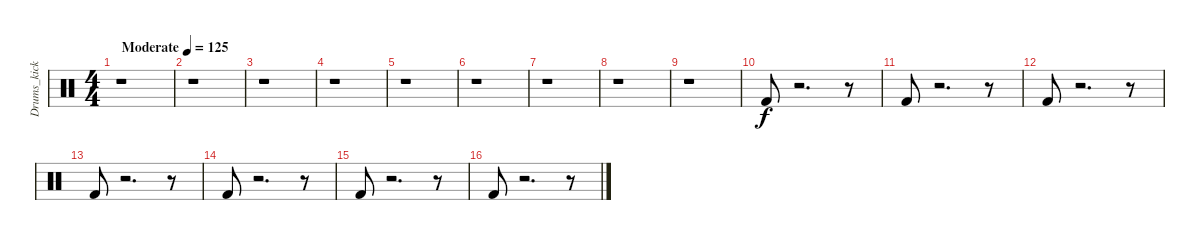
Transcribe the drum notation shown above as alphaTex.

\track ("Drums_kick" "Drums_kick") {instrument percussion}
\staff {score}
\articulation defaults
\ts (4 4)
\tempo (125 "Moderate")
\clef neutral
\ks c
r.1{dy f} |
r.1 |
r.1 |
r.1 |
r.1 |
r.1 |
r.1 |
r.1 |
r.1 |
"Kick (hit) 2".8 r.2{d} r.8 |
"Kick (hit) 2".8 r.2{d} r.8 |
"Kick (hit) 2".8 r.2{d} r.8 |
"Kick (hit) 2".8 r.2{d} r.8 |
"Kick (hit) 2".8 r.2{d} r.8 |
"Kick (hit) 2".8 r.2{d} r.8 |
"Kick (hit) 2".8 r.2{d} r.8
